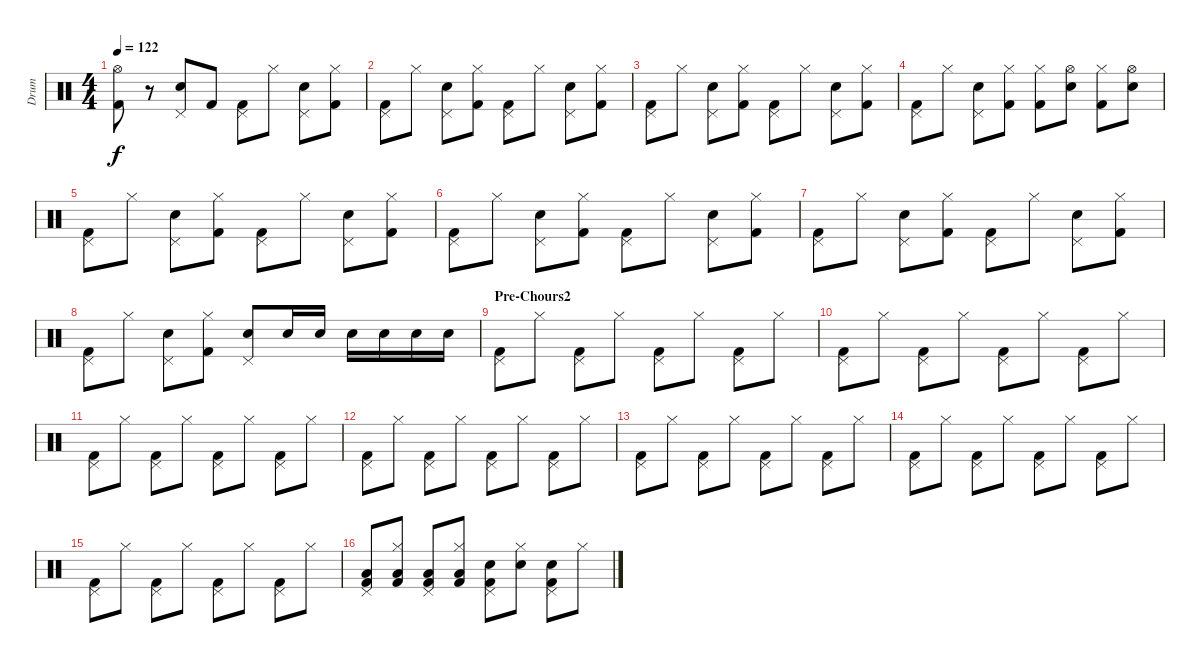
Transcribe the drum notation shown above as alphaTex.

\track ("Drum" "Drum") {instrument percussion}
\staff {score}
\articulation defaults
\ts (4 4)
\tempo 122
\clef neutral
\ks c
("Hi-Hat (open)" "Kick (hit) 2").8{dy f} r.8 ("Pedal Hi-Hat (hit)" "Electric Snare (hit)").8 "Kick (hit) 2".8 ("Pedal Hi-Hat (hit)" "Kick (hit) 2").8 "Hi-Hat (closed)".8 ("Pedal Hi-Hat (hit)" "Electric Snare (hit)").8 ("Hi-Hat (closed)" "Kick (hit) 2").8 |
("Pedal Hi-Hat (hit)" "Kick (hit) 2").8 "Hi-Hat (closed)".8 ("Pedal Hi-Hat (hit)" "Electric Snare (hit)").8 ("Hi-Hat (closed)" "Kick (hit) 2").8 ("Pedal Hi-Hat (hit)" "Kick (hit) 2").8 "Hi-Hat (closed)".8 ("Pedal Hi-Hat (hit)" "Electric Snare (hit)").8 ("Hi-Hat (closed)" "Kick (hit) 2").8 |
("Pedal Hi-Hat (hit)" "Kick (hit) 2").8 "Hi-Hat (closed)".8 ("Pedal Hi-Hat (hit)" "Electric Snare (hit)").8 ("Hi-Hat (closed)" "Kick (hit) 2").8 ("Pedal Hi-Hat (hit)" "Kick (hit) 2").8 "Hi-Hat (closed)".8 ("Pedal Hi-Hat (hit)" "Electric Snare (hit)").8 ("Hi-Hat (closed)" "Kick (hit) 2").8 |
("Pedal Hi-Hat (hit)" "Kick (hit) 2").8 "Hi-Hat (closed)".8 ("Pedal Hi-Hat (hit)" "Electric Snare (hit)").8 ("Hi-Hat (closed)" "Kick (hit) 2").8 ("Hi-Hat (closed)" "Kick (hit) 2").8 ("Hi-Hat (open)" "Electric Snare (hit)").8 ("Hi-Hat (closed)" "Kick (hit) 2").8 ("Hi-Hat (open)" "Electric Snare (hit)").8 |
("Pedal Hi-Hat (hit)" "Kick (hit) 2").8 "Hi-Hat (closed)".8 ("Pedal Hi-Hat (hit)" "Electric Snare (hit)").8 ("Hi-Hat (closed)" "Kick (hit) 2").8 ("Pedal Hi-Hat (hit)" "Kick (hit) 2").8 "Hi-Hat (closed)".8 ("Pedal Hi-Hat (hit)" "Electric Snare (hit)").8 ("Hi-Hat (closed)" "Kick (hit) 2").8 |
("Pedal Hi-Hat (hit)" "Kick (hit) 2").8 "Hi-Hat (closed)".8 ("Pedal Hi-Hat (hit)" "Electric Snare (hit)").8 ("Hi-Hat (closed)" "Kick (hit) 2").8 ("Pedal Hi-Hat (hit)" "Kick (hit) 2").8 "Hi-Hat (closed)".8 ("Pedal Hi-Hat (hit)" "Electric Snare (hit)").8 ("Hi-Hat (closed)" "Kick (hit) 2").8 |
("Pedal Hi-Hat (hit)" "Kick (hit) 2").8 "Hi-Hat (closed)".8 ("Pedal Hi-Hat (hit)" "Electric Snare (hit)").8 ("Hi-Hat (closed)" "Kick (hit) 2").8 ("Pedal Hi-Hat (hit)" "Kick (hit) 2").8 "Hi-Hat (closed)".8 ("Pedal Hi-Hat (hit)" "Electric Snare (hit)").8 ("Hi-Hat (closed)" "Kick (hit) 2").8 |
("Pedal Hi-Hat (hit)" "Kick (hit) 2").8 "Hi-Hat (closed)".8 ("Pedal Hi-Hat (hit)" "Electric Snare (hit)").8 ("Hi-Hat (closed)" "Kick (hit) 2").8 ("Pedal Hi-Hat (hit)" "Electric Snare (hit)").8 "Electric Snare (hit)".16 "Electric Snare (hit)".16 "Electric Snare (hit)".16 "Electric Snare (hit)".16 "Electric Snare (hit)".16 "Electric Snare (hit)".16 |
\section ("" "Pre-Chours2")
("Pedal Hi-Hat (hit)" "Kick (hit) 2").8 "Hi-Hat (closed)".8 ("Pedal Hi-Hat (hit)" "Kick (hit) 2").8 "Hi-Hat (closed)".8 ("Pedal Hi-Hat (hit)" "Kick (hit) 2").8 "Hi-Hat (closed)".8 ("Pedal Hi-Hat (hit)" "Kick (hit) 2").8 "Hi-Hat (closed)".8 |
("Pedal Hi-Hat (hit)" "Kick (hit) 2").8 "Hi-Hat (closed)".8 ("Pedal Hi-Hat (hit)" "Kick (hit) 2").8 "Hi-Hat (closed)".8 ("Pedal Hi-Hat (hit)" "Kick (hit) 2").8 "Hi-Hat (closed)".8 ("Pedal Hi-Hat (hit)" "Kick (hit) 2").8 "Hi-Hat (closed)".8 |
("Pedal Hi-Hat (hit)" "Kick (hit) 2").8 "Hi-Hat (closed)".8 ("Pedal Hi-Hat (hit)" "Kick (hit) 2").8 "Hi-Hat (closed)".8 ("Pedal Hi-Hat (hit)" "Kick (hit) 2").8 "Hi-Hat (closed)".8 ("Pedal Hi-Hat (hit)" "Kick (hit) 2").8 "Hi-Hat (closed)".8 |
("Pedal Hi-Hat (hit)" "Kick (hit) 2").8 "Hi-Hat (closed)".8 ("Pedal Hi-Hat (hit)" "Kick (hit) 2").8 "Hi-Hat (closed)".8 ("Pedal Hi-Hat (hit)" "Kick (hit) 2").8 "Hi-Hat (closed)".8 ("Pedal Hi-Hat (hit)" "Kick (hit) 2").8 "Hi-Hat (closed)".8 |
("Pedal Hi-Hat (hit)" "Kick (hit) 2").8 "Hi-Hat (closed)".8 ("Pedal Hi-Hat (hit)" "Kick (hit) 2").8 "Hi-Hat (closed)".8 ("Pedal Hi-Hat (hit)" "Kick (hit) 2").8 "Hi-Hat (closed)".8 ("Pedal Hi-Hat (hit)" "Kick (hit) 2").8 "Hi-Hat (closed)".8 |
("Pedal Hi-Hat (hit)" "Kick (hit) 2").8 "Hi-Hat (closed)".8 ("Pedal Hi-Hat (hit)" "Kick (hit) 2").8 "Hi-Hat (closed)".8 ("Pedal Hi-Hat (hit)" "Kick (hit) 2").8 "Hi-Hat (closed)".8 ("Pedal Hi-Hat (hit)" "Kick (hit) 2").8 "Hi-Hat (closed)".8 |
("Pedal Hi-Hat (hit)" "Kick (hit) 2").8 "Hi-Hat (closed)".8 ("Pedal Hi-Hat (hit)" "Kick (hit) 2").8 "Hi-Hat (closed)".8 ("Pedal Hi-Hat (hit)" "Kick (hit) 2").8 "Hi-Hat (closed)".8 ("Pedal Hi-Hat (hit)" "Kick (hit) 2").8 "Hi-Hat (closed)".8 |
("Pedal Hi-Hat (hit)" "Low Tom (hit)" "Kick (hit) 2").8 ("Hi-Hat (closed)" "Low Tom (hit)" "Kick (hit) 2").8 ("Pedal Hi-Hat (hit)" "Low Tom (hit)" "Kick (hit) 2").8 ("Hi-Hat (closed)" "Low Tom (hit)" "Kick (hit) 2").8 ("Pedal Hi-Hat (hit)" "Electric Snare (hit)" "Kick (hit) 2").8 ("Hi-Hat (closed)" "Electric Snare (hit)").8 ("Pedal Hi-Hat (hit)" "Electric Snare (hit)" "Kick (hit) 2").8 "Hi-Hat (closed)".8
